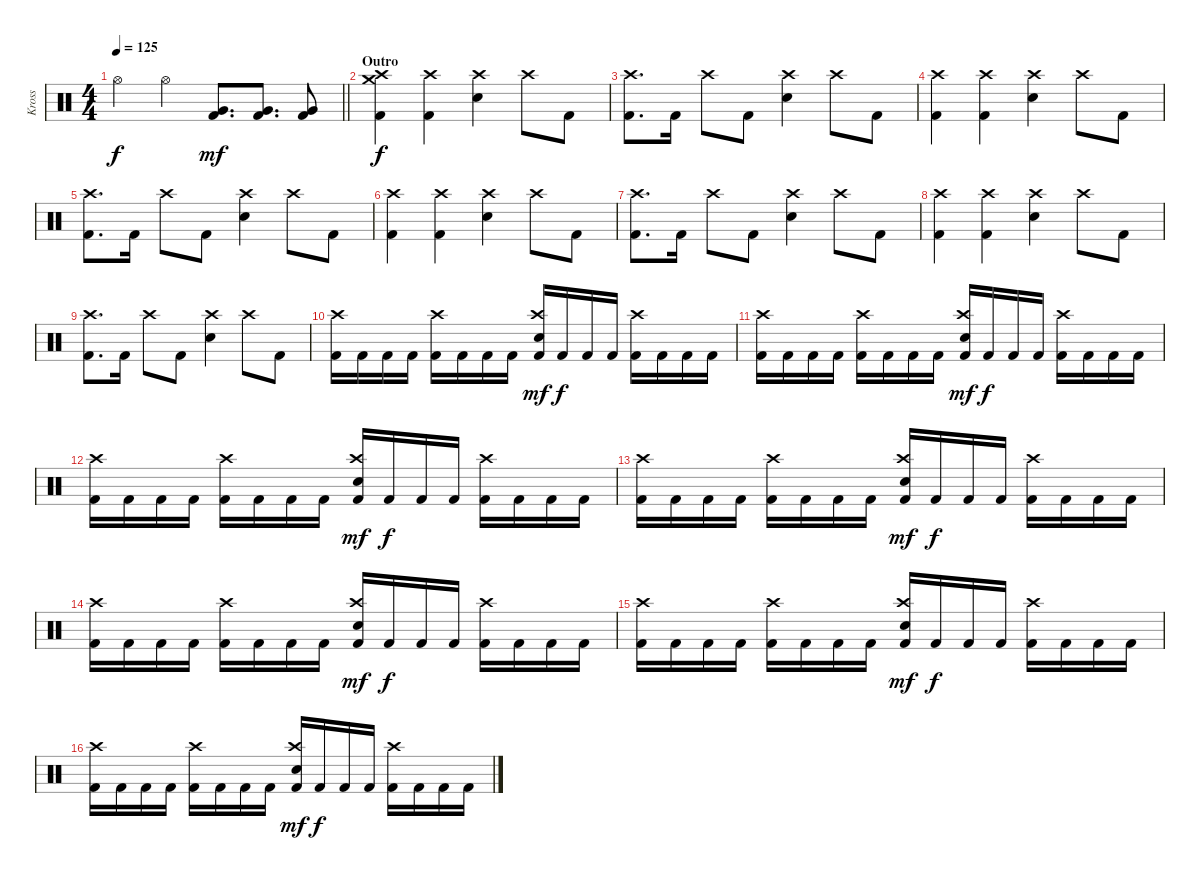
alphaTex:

\track ("Kross" "Kross") {instrument percussion}
\staff {score}
\articulation defaults
\ts (4 4)
\tempo 125
\clef neutral
\barLineRight lightlight
\ks c "Hi-Hat (open)".4{dy f} "Hi-Hat (open)".4
("Very Low Tom (hit)" "Kick (hit) 2").8{d dy mf} ("Very Low Tom (hit)" "Kick (hit) 2").8{d} ("Very Low Tom (hit)" "Kick (hit) 2").8 |
\section ("" "Outro")
("Crash high (hit)" "Crash medium (hit)" "Kick (hit) 2").4{dy f} ("Crash high (hit)" "Kick (hit) 2").4 ("Crash high (hit)" "Snare (hit) 2").4 "Crash high (hit)".8 "Kick (hit) 2".8 |
("Crash high (hit)" "Kick (hit) 2").8{d} "Kick (hit) 2".16 "Crash high (hit)".8 "Kick (hit) 2".8 ("Crash high (hit)" "Snare (hit) 2").4 "Crash high (hit)".8 "Kick (hit) 2".8 |
("Crash high (hit)" "Kick (hit) 2").4 ("Crash high (hit)" "Kick (hit) 2").4 ("Crash high (hit)" "Snare (hit) 2").4 "Crash high (hit)".8 "Kick (hit) 2".8 |
("Crash high (hit)" "Kick (hit) 2").8{d} "Kick (hit) 2".16 "Crash high (hit)".8 "Kick (hit) 2".8 ("Crash high (hit)" "Snare (hit) 2").4 "Crash high (hit)".8 "Kick (hit) 2".8 |
("Crash high (hit)" "Kick (hit) 2").4 ("Crash high (hit)" "Kick (hit) 2").4 ("Crash high (hit)" "Snare (hit) 2").4 "Crash high (hit)".8 "Kick (hit) 2".8 |
("Crash high (hit)" "Kick (hit) 2").8{d} "Kick (hit) 2".16 "Crash high (hit)".8 "Kick (hit) 2".8 ("Crash high (hit)" "Snare (hit) 2").4 "Crash high (hit)".8 "Kick (hit) 2".8 |
("Crash high (hit)" "Kick (hit) 2").4 ("Crash high (hit)" "Kick (hit) 2").4 ("Crash high (hit)" "Snare (hit) 2").4 "Crash high (hit)".8 "Kick (hit) 2".8 |
("Crash high (hit)" "Kick (hit) 2").8{d} "Kick (hit) 2".16 "Crash high (hit)".8 "Kick (hit) 2".8 ("Crash high (hit)" "Snare (hit) 2").4 "Crash high (hit)".8 "Kick (hit) 2".8 |
("Crash high (hit)" "Kick (hit) 2").16 "Kick (hit) 2".16 "Kick (hit) 2".16 "Kick (hit) 2".16 ("Crash high (hit)" "Kick (hit) 2").16 "Kick (hit) 2".16 "Kick (hit) 2".16 "Kick (hit) 2".16 ("Crash high (hit)" "Snare (hit) 2" "Kick (hit) 2").16{dy mf} "Kick (hit) 2".16{dy f} "Kick (hit) 2".16 "Kick (hit) 2".16 ("Crash high (hit)" "Kick (hit) 2").16 "Kick (hit) 2".16 "Kick (hit) 2".16 "Kick (hit) 2".16 |
("Crash high (hit)" "Kick (hit) 2").16 "Kick (hit) 2".16 "Kick (hit) 2".16 "Kick (hit) 2".16 ("Crash high (hit)" "Kick (hit) 2").16 "Kick (hit) 2".16 "Kick (hit) 2".16 "Kick (hit) 2".16 ("Crash high (hit)" "Snare (hit) 2" "Kick (hit) 2").16{dy mf} "Kick (hit) 2".16{dy f} "Kick (hit) 2".16 "Kick (hit) 2".16 ("Crash high (hit)" "Kick (hit) 2").16 "Kick (hit) 2".16 "Kick (hit) 2".16 "Kick (hit) 2".16 |
("Crash high (hit)" "Kick (hit) 2").16 "Kick (hit) 2".16 "Kick (hit) 2".16 "Kick (hit) 2".16 ("Crash high (hit)" "Kick (hit) 2").16 "Kick (hit) 2".16 "Kick (hit) 2".16 "Kick (hit) 2".16 ("Crash high (hit)" "Snare (hit) 2" "Kick (hit) 2").16{dy mf} "Kick (hit) 2".16{dy f} "Kick (hit) 2".16 "Kick (hit) 2".16 ("Crash high (hit)" "Kick (hit) 2").16 "Kick (hit) 2".16 "Kick (hit) 2".16 "Kick (hit) 2".16 |
("Crash high (hit)" "Kick (hit) 2").16 "Kick (hit) 2".16 "Kick (hit) 2".16 "Kick (hit) 2".16 ("Crash high (hit)" "Kick (hit) 2").16 "Kick (hit) 2".16 "Kick (hit) 2".16 "Kick (hit) 2".16 ("Crash high (hit)" "Snare (hit) 2" "Kick (hit) 2").16{dy mf} "Kick (hit) 2".16{dy f} "Kick (hit) 2".16 "Kick (hit) 2".16 ("Crash high (hit)" "Kick (hit) 2").16 "Kick (hit) 2".16 "Kick (hit) 2".16 "Kick (hit) 2".16 |
("Crash high (hit)" "Kick (hit) 2").16 "Kick (hit) 2".16 "Kick (hit) 2".16 "Kick (hit) 2".16 ("Crash high (hit)" "Kick (hit) 2").16 "Kick (hit) 2".16 "Kick (hit) 2".16 "Kick (hit) 2".16 ("Crash high (hit)" "Snare (hit) 2" "Kick (hit) 2").16{dy mf} "Kick (hit) 2".16{dy f} "Kick (hit) 2".16 "Kick (hit) 2".16 ("Crash high (hit)" "Kick (hit) 2").16 "Kick (hit) 2".16 "Kick (hit) 2".16 "Kick (hit) 2".16 |
("Crash high (hit)" "Kick (hit) 2").16 "Kick (hit) 2".16 "Kick (hit) 2".16 "Kick (hit) 2".16 ("Crash high (hit)" "Kick (hit) 2").16 "Kick (hit) 2".16 "Kick (hit) 2".16 "Kick (hit) 2".16 ("Crash high (hit)" "Snare (hit) 2" "Kick (hit) 2").16{dy mf} "Kick (hit) 2".16{dy f} "Kick (hit) 2".16 "Kick (hit) 2".16 ("Crash high (hit)" "Kick (hit) 2").16 "Kick (hit) 2".16 "Kick (hit) 2".16 "Kick (hit) 2".16 |
("Crash high (hit)" "Kick (hit) 2").16 "Kick (hit) 2".16 "Kick (hit) 2".16 "Kick (hit) 2".16 ("Crash high (hit)" "Kick (hit) 2").16 "Kick (hit) 2".16 "Kick (hit) 2".16 "Kick (hit) 2".16 ("Crash high (hit)" "Snare (hit) 2" "Kick (hit) 2").16{dy mf} "Kick (hit) 2".16{dy f} "Kick (hit) 2".16 "Kick (hit) 2".16 ("Crash high (hit)" "Kick (hit) 2").16 "Kick (hit) 2".16 "Kick (hit) 2".16 "Kick (hit) 2".16
